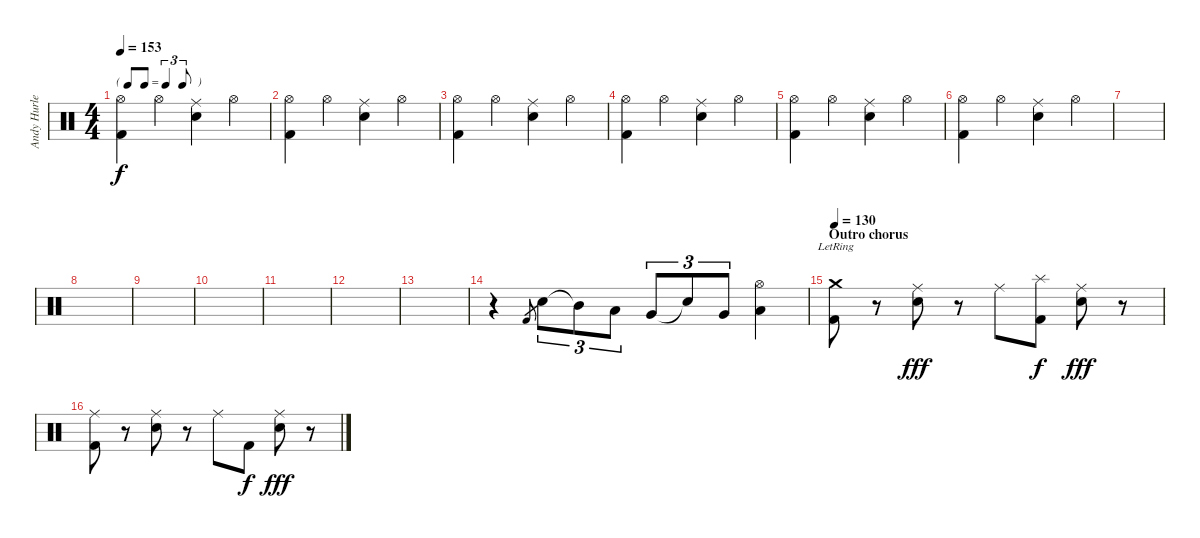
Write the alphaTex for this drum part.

\track ("Andy Hurley" "Andy Hurle") {instrument percussion}
\staff {score}
\articulation defaults
\ts (4 4)
\tf triplet8th
\tempo 153
\clef neutral
\ks c
("Hi-Hat (open)" "Kick (hit) 2").4{dy f} "Hi-Hat (open)".4 ("Electric Snare (hit)" "Ride (middle)").4 "Hi-Hat (open)".4 |
("Hi-Hat (open)" "Kick (hit) 2").4 "Hi-Hat (open)".4 ("Electric Snare (hit)" "Ride (middle)").4 "Hi-Hat (open)".4 |
("Hi-Hat (open)" "Kick (hit) 2").4 "Hi-Hat (open)".4 ("Electric Snare (hit)" "Ride (middle)").4 "Hi-Hat (open)".4 |
("Hi-Hat (open)" "Kick (hit) 2").4 "Hi-Hat (open)".4 ("Electric Snare (hit)" "Ride (middle)").4 "Hi-Hat (open)".4 |
("Hi-Hat (open)" "Kick (hit) 2").4 "Hi-Hat (open)".4 ("Electric Snare (hit)" "Ride (middle)").4 "Hi-Hat (open)".4 |
("Hi-Hat (open)" "Kick (hit) 2").4 "Hi-Hat (open)".4 ("Electric Snare (hit)" "Ride (middle)").4 "Hi-Hat (open)".4 |
|
|
|
|
|
|
|
r.4 "Kick (hit) 2".8{gr} "Electric Snare (hit)".8{tu (3 2)} "Mid Tom (hit)"{t}.8{tu (3 2)} "Low Tom (hit)".8{tu (3 2)} "Very Low Tom (hit)".8{tu (3 2)} "Snare (hit)"{t}.8{tu (3 2)} "Very Low Tom (hit)".8{tu (3 2)} ("Hi-Hat (open)" "Low Floor Tom (hit)").4 |
\section ("" "Outro chorus")
\tempo 130
("Crash medium (hit)"{lr} "Kick (hit) 2").8 r.8 ("Ride (middle)" "Electric Snare (hit)").8{dy fff} r.8 "Ride (middle)".8 ("Splash (hit)" "Kick (hit) 2").8{dy f} ("Ride (middle)" "Electric Snare (hit)").8{dy fff} r.8 |
("Ride (middle)" "Kick (hit) 2").8 r.8 ("Ride (middle)" "Electric Snare (hit)").8 r.8 "Ride (middle)".8 "Kick (hit) 2".8{dy f} ("Ride (middle)" "Electric Snare (hit)").8{dy fff} r.8
